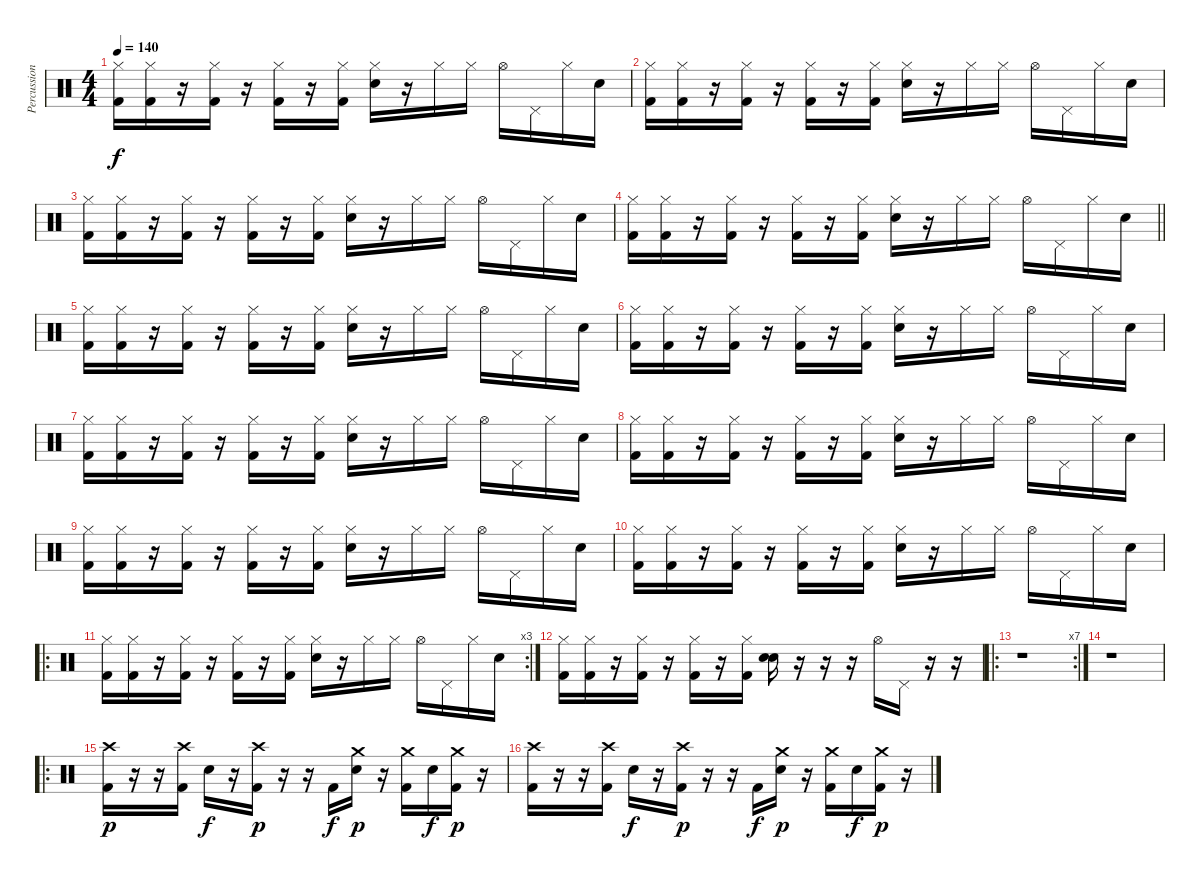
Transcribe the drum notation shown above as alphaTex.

\track ("Percussion" "Percussion") {instrument percussion}
\staff {score}
\articulation defaults
\ts (4 4)
\tempo 140
\clef neutral
\ks c
("Hi-Hat (closed)" "Kick (hit) 2").16{dy f} ("Hi-Hat (closed)" "Kick (hit) 2").16 r.16 ("Hi-Hat (closed)" "Kick (hit) 2").16 r.16 ("Hi-Hat (closed)" "Kick (hit) 2").16 r.16 ("Hi-Hat (closed)" "Kick (hit) 2").16 ("Hi-Hat (closed)" "Electric Snare (hit)").16 r.16 "Hi-Hat (closed)".16 "Hi-Hat (closed)".16 "Hi-Hat (open)".16 "Pedal Hi-Hat (hit)".16 "Hi-Hat (closed)".16 "Electric Snare (hit)".16 |
("Hi-Hat (closed)" "Kick (hit) 2").16 ("Hi-Hat (closed)" "Kick (hit) 2").16 r.16 ("Hi-Hat (closed)" "Kick (hit) 2").16 r.16 ("Hi-Hat (closed)" "Kick (hit) 2").16 r.16 ("Hi-Hat (closed)" "Kick (hit) 2").16 ("Hi-Hat (closed)" "Electric Snare (hit)").16 r.16 "Hi-Hat (closed)".16 "Hi-Hat (closed)".16 "Hi-Hat (open)".16 "Pedal Hi-Hat (hit)".16 "Hi-Hat (closed)".16 "Electric Snare (hit)".16 |
("Hi-Hat (closed)" "Kick (hit) 2").16 ("Hi-Hat (closed)" "Kick (hit) 2").16 r.16 ("Hi-Hat (closed)" "Kick (hit) 2").16 r.16 ("Hi-Hat (closed)" "Kick (hit) 2").16 r.16 ("Hi-Hat (closed)" "Kick (hit) 2").16 ("Hi-Hat (closed)" "Electric Snare (hit)").16 r.16 "Hi-Hat (closed)".16 "Hi-Hat (closed)".16 "Hi-Hat (open)".16 "Pedal Hi-Hat (hit)".16 "Hi-Hat (closed)".16 "Electric Snare (hit)".16 |
\barLineRight lightlight
("Hi-Hat (closed)" "Kick (hit) 2").16 ("Hi-Hat (closed)" "Kick (hit) 2").16 r.16 ("Hi-Hat (closed)" "Kick (hit) 2").16 r.16 ("Hi-Hat (closed)" "Kick (hit) 2").16 r.16 ("Hi-Hat (closed)" "Kick (hit) 2").16 ("Hi-Hat (closed)" "Electric Snare (hit)").16 r.16 "Hi-Hat (closed)".16 "Hi-Hat (closed)".16 "Hi-Hat (open)".16 "Pedal Hi-Hat (hit)".16 "Hi-Hat (closed)".16 "Electric Snare (hit)".16 |
("Hi-Hat (closed)" "Kick (hit) 2").16 ("Hi-Hat (closed)" "Kick (hit) 2").16 r.16 ("Hi-Hat (closed)" "Kick (hit) 2").16 r.16 ("Hi-Hat (closed)" "Kick (hit) 2").16 r.16 ("Hi-Hat (closed)" "Kick (hit) 2").16 ("Hi-Hat (closed)" "Electric Snare (hit)").16 r.16 "Hi-Hat (closed)".16 "Hi-Hat (closed)".16 "Hi-Hat (open)".16 "Pedal Hi-Hat (hit)".16 "Hi-Hat (closed)".16 "Electric Snare (hit)".16 |
("Hi-Hat (closed)" "Kick (hit) 2").16 ("Hi-Hat (closed)" "Kick (hit) 2").16 r.16 ("Hi-Hat (closed)" "Kick (hit) 2").16 r.16 ("Hi-Hat (closed)" "Kick (hit) 2").16 r.16 ("Hi-Hat (closed)" "Kick (hit) 2").16 ("Hi-Hat (closed)" "Electric Snare (hit)").16 r.16 "Hi-Hat (closed)".16 "Hi-Hat (closed)".16 "Hi-Hat (open)".16 "Pedal Hi-Hat (hit)".16 "Hi-Hat (closed)".16 "Electric Snare (hit)".16 |
("Hi-Hat (closed)" "Kick (hit) 2").16 ("Hi-Hat (closed)" "Kick (hit) 2").16 r.16 ("Hi-Hat (closed)" "Kick (hit) 2").16 r.16 ("Hi-Hat (closed)" "Kick (hit) 2").16 r.16 ("Hi-Hat (closed)" "Kick (hit) 2").16 ("Hi-Hat (closed)" "Electric Snare (hit)").16 r.16 "Hi-Hat (closed)".16 "Hi-Hat (closed)".16 "Hi-Hat (open)".16 "Pedal Hi-Hat (hit)".16 "Hi-Hat (closed)".16 "Electric Snare (hit)".16 |
("Hi-Hat (closed)" "Kick (hit) 2").16 ("Hi-Hat (closed)" "Kick (hit) 2").16 r.16 ("Hi-Hat (closed)" "Kick (hit) 2").16 r.16 ("Hi-Hat (closed)" "Kick (hit) 2").16 r.16 ("Hi-Hat (closed)" "Kick (hit) 2").16 ("Hi-Hat (closed)" "Electric Snare (hit)").16 r.16 "Hi-Hat (closed)".16 "Hi-Hat (closed)".16 "Hi-Hat (open)".16 "Pedal Hi-Hat (hit)".16 "Hi-Hat (closed)".16 "Electric Snare (hit)".16 |
("Hi-Hat (closed)" "Kick (hit) 2").16 ("Hi-Hat (closed)" "Kick (hit) 2").16 r.16 ("Hi-Hat (closed)" "Kick (hit) 2").16 r.16 ("Hi-Hat (closed)" "Kick (hit) 2").16 r.16 ("Hi-Hat (closed)" "Kick (hit) 2").16 ("Hi-Hat (closed)" "Electric Snare (hit)").16 r.16 "Hi-Hat (closed)".16 "Hi-Hat (closed)".16 "Hi-Hat (open)".16 "Pedal Hi-Hat (hit)".16 "Hi-Hat (closed)".16 "Electric Snare (hit)".16 |
("Hi-Hat (closed)" "Kick (hit) 2").16 ("Hi-Hat (closed)" "Kick (hit) 2").16 r.16 ("Hi-Hat (closed)" "Kick (hit) 2").16 r.16 ("Hi-Hat (closed)" "Kick (hit) 2").16 r.16 ("Hi-Hat (closed)" "Kick (hit) 2").16 ("Hi-Hat (closed)" "Electric Snare (hit)").16 r.16 "Hi-Hat (closed)".16 "Hi-Hat (closed)".16 "Hi-Hat (open)".16 "Pedal Hi-Hat (hit)".16 "Hi-Hat (closed)".16 "Electric Snare (hit)".16 |
\ro
\rc 3
("Hi-Hat (closed)" "Kick (hit) 2").16 ("Hi-Hat (closed)" "Kick (hit) 2").16 r.16 ("Hi-Hat (closed)" "Kick (hit) 2").16 r.16 ("Hi-Hat (closed)" "Kick (hit) 2").16 r.16 ("Hi-Hat (closed)" "Kick (hit) 2").16 ("Hi-Hat (closed)" "Electric Snare (hit)").16 r.16 "Hi-Hat (closed)".16 "Hi-Hat (closed)".16 "Hi-Hat (open)".16 "Pedal Hi-Hat (hit)".16 "Hi-Hat (closed)".16 "Electric Snare (hit)".16 |
("Hi-Hat (closed)" "Kick (hit) 2").16 ("Hi-Hat (closed)" "Kick (hit) 2").16 r.16 ("Hi-Hat (closed)" "Kick (hit) 2").16 r.16 ("Hi-Hat (closed)" "Kick (hit) 2").16 r.16 ("Hi-Hat (closed)" "Kick (hit) 2").16 ("Snare (hit) 2" "Electric Snare (hit)").16 r.16 r.16 r.16 "Hi-Hat (open)".16 "Pedal Hi-Hat (hit)".16 r.16 r.16 |
\ro
\rc 7
r.1 |
r.1 |
\ro
("Crash high (hit)" "Kick (hit) 2").16{dy p} r.16 r.16 ("Crash high (hit)" "Kick (hit) 2").16 "Electric Snare (hit)".16{dy f} r.16 ("Crash high (hit)" "Kick (hit) 2").16{dy p} r.16 r.16 "Kick (hit) 2".16{dy f} ("Crash medium (hit)" "Electric Snare (hit)").16{dy p} r.16 ("Crash medium (hit)" "Kick (hit) 2").16 "Electric Snare (hit)".16{dy f} ("Crash medium (hit)" "Kick (hit) 2").16{dy p} r.16 |
("Crash high (hit)" "Kick (hit) 2").16 r.16 r.16 ("Crash high (hit)" "Kick (hit) 2").16 "Electric Snare (hit)".16{dy f} r.16 ("Crash high (hit)" "Kick (hit) 2").16{dy p} r.16 r.16 "Kick (hit) 2".16{dy f} ("Crash medium (hit)" "Electric Snare (hit)").16{dy p} r.16 ("Crash medium (hit)" "Kick (hit) 2").16 "Electric Snare (hit)".16{dy f} ("Crash medium (hit)" "Kick (hit) 2").16{dy p} r.16
